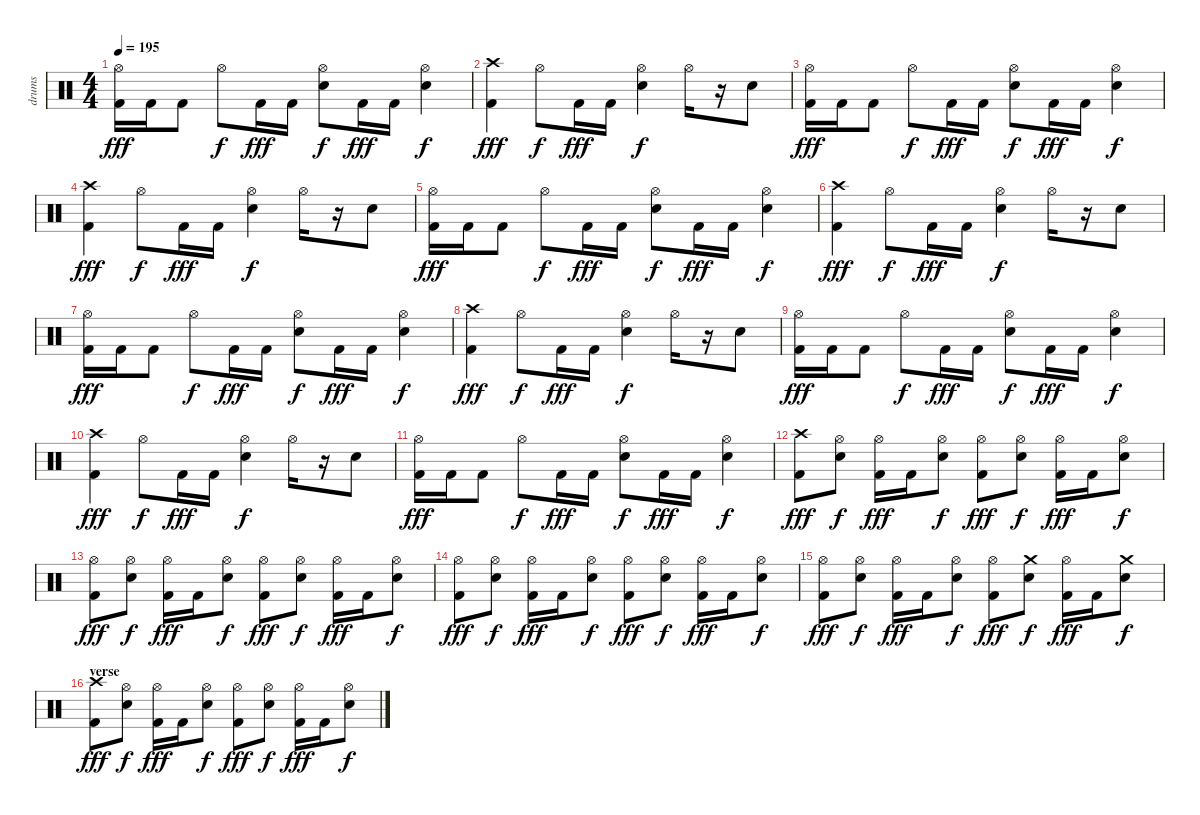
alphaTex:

\track ("drums" "drums") {instrument percussion}
\staff {score}
\articulation defaults
\ts (4 4)
\tempo 195
\clef neutral
\ks c
("Hi-Hat (open)" "Kick (hit) 2").16{dy fff} "Kick (hit) 2".16 "Kick (hit) 2".8 "Hi-Hat (open)".8{dy f} "Kick (hit) 2".16{dy fff} "Kick (hit) 2".16 ("Hi-Hat (open)" "Snare (hit) 2").8{dy f} "Kick (hit) 2".16{dy fff} "Kick (hit) 2".16 ("Hi-Hat (open)" "Snare (hit) 2").4{dy f} |
("Crash high (hit)" "Kick (hit) 2").4{dy fff} "Hi-Hat (open)".8{dy f} "Kick (hit) 2".16{dy fff} "Kick (hit) 2".16 ("Hi-Hat (open)" "Snare (hit) 2").4{dy f} "Hi-Hat (open)".16 r.16 "Snare (hit) 2".8 |
("Hi-Hat (open)" "Kick (hit) 2").16{dy fff} "Kick (hit) 2".16 "Kick (hit) 2".8 "Hi-Hat (open)".8{dy f} "Kick (hit) 2".16{dy fff} "Kick (hit) 2".16 ("Hi-Hat (open)" "Snare (hit) 2").8{dy f} "Kick (hit) 2".16{dy fff} "Kick (hit) 2".16 ("Hi-Hat (open)" "Snare (hit) 2").4{dy f} |
("Crash high (hit)" "Kick (hit) 2").4{dy fff} "Hi-Hat (open)".8{dy f} "Kick (hit) 2".16{dy fff} "Kick (hit) 2".16 ("Hi-Hat (open)" "Snare (hit) 2").4{dy f} "Hi-Hat (open)".16 r.16 "Snare (hit) 2".8 |
("Hi-Hat (open)" "Kick (hit) 2").16{dy fff} "Kick (hit) 2".16 "Kick (hit) 2".8 "Hi-Hat (open)".8{dy f} "Kick (hit) 2".16{dy fff} "Kick (hit) 2".16 ("Hi-Hat (open)" "Snare (hit) 2").8{dy f} "Kick (hit) 2".16{dy fff} "Kick (hit) 2".16 ("Hi-Hat (open)" "Snare (hit) 2").4{dy f} |
("Crash high (hit)" "Kick (hit) 2").4{dy fff} "Hi-Hat (open)".8{dy f} "Kick (hit) 2".16{dy fff} "Kick (hit) 2".16 ("Hi-Hat (open)" "Snare (hit) 2").4{dy f} "Hi-Hat (open)".16 r.16 "Snare (hit) 2".8 |
("Hi-Hat (open)" "Kick (hit) 2").16{dy fff} "Kick (hit) 2".16 "Kick (hit) 2".8 "Hi-Hat (open)".8{dy f} "Kick (hit) 2".16{dy fff} "Kick (hit) 2".16 ("Hi-Hat (open)" "Snare (hit) 2").8{dy f} "Kick (hit) 2".16{dy fff} "Kick (hit) 2".16 ("Hi-Hat (open)" "Snare (hit) 2").4{dy f} |
("Crash high (hit)" "Kick (hit) 2").4{dy fff} "Hi-Hat (open)".8{dy f} "Kick (hit) 2".16{dy fff} "Kick (hit) 2".16 ("Hi-Hat (open)" "Snare (hit) 2").4{dy f} "Hi-Hat (open)".16 r.16 "Snare (hit) 2".8 |
("Hi-Hat (open)" "Kick (hit) 2").16{dy fff} "Kick (hit) 2".16 "Kick (hit) 2".8 "Hi-Hat (open)".8{dy f} "Kick (hit) 2".16{dy fff} "Kick (hit) 2".16 ("Hi-Hat (open)" "Snare (hit) 2").8{dy f} "Kick (hit) 2".16{dy fff} "Kick (hit) 2".16 ("Hi-Hat (open)" "Snare (hit) 2").4{dy f} |
("Crash high (hit)" "Kick (hit) 2").4{dy fff} "Hi-Hat (open)".8{dy f} "Kick (hit) 2".16{dy fff} "Kick (hit) 2".16 ("Hi-Hat (open)" "Snare (hit) 2").4{dy f} "Hi-Hat (open)".16 r.16 "Snare (hit) 2".8 |
("Hi-Hat (open)" "Kick (hit) 2").16{dy fff} "Kick (hit) 2".16 "Kick (hit) 2".8 "Hi-Hat (open)".8{dy f} "Kick (hit) 2".16{dy fff} "Kick (hit) 2".16 ("Hi-Hat (open)" "Snare (hit) 2").8{dy f} "Kick (hit) 2".16{dy fff} "Kick (hit) 2".16 ("Hi-Hat (open)" "Snare (hit) 2").4{dy f} |
\section ("" "")
("Crash high (hit)" "Kick (hit) 2").8{dy fff} ("Hi-Hat (open)" "Snare (hit) 2").8{dy f} ("Hi-Hat (open)" "Kick (hit) 2").16{dy fff} "Kick (hit) 2".16 ("Hi-Hat (open)" "Snare (hit) 2").8{dy f} ("Hi-Hat (open)" "Kick (hit) 2").8{dy fff} ("Hi-Hat (open)" "Snare (hit) 2").8{dy f} ("Hi-Hat (open)" "Kick (hit) 2").16{dy fff} "Kick (hit) 2".16 ("Hi-Hat (open)" "Snare (hit) 2").8{dy f} |
("Hi-Hat (open)" "Kick (hit) 2").8{dy fff} ("Hi-Hat (open)" "Snare (hit) 2").8{dy f} ("Hi-Hat (open)" "Kick (hit) 2").16{dy fff} "Kick (hit) 2".16 ("Hi-Hat (open)" "Snare (hit) 2").8{dy f} ("Hi-Hat (open)" "Kick (hit) 2").8{dy fff} ("Hi-Hat (open)" "Snare (hit) 2").8{dy f} ("Hi-Hat (open)" "Kick (hit) 2").16{dy fff} "Kick (hit) 2".16 ("Hi-Hat (open)" "Snare (hit) 2").8{dy f} |
("Hi-Hat (open)" "Kick (hit) 2").8{dy fff} ("Hi-Hat (open)" "Snare (hit) 2").8{dy f} ("Hi-Hat (open)" "Kick (hit) 2").16{dy fff} "Kick (hit) 2".16 ("Hi-Hat (open)" "Snare (hit) 2").8{dy f} ("Hi-Hat (open)" "Kick (hit) 2").8{dy fff} ("Hi-Hat (open)" "Snare (hit) 2").8{dy f} ("Hi-Hat (open)" "Kick (hit) 2").16{dy fff} "Kick (hit) 2".16 ("Hi-Hat (open)" "Snare (hit) 2").8{dy f} |
("Hi-Hat (open)" "Kick (hit) 2").8{dy fff} ("Hi-Hat (open)" "Snare (hit) 2").8{dy f} ("Hi-Hat (open)" "Kick (hit) 2").16{dy fff} "Kick (hit) 2".16 ("Hi-Hat (open)" "Snare (hit) 2").8{dy f} ("Hi-Hat (open)" "Kick (hit) 2").8{dy fff} ("Crash medium (hit)" "Snare (hit) 2").8{dy f} ("Hi-Hat (open)" "Kick (hit) 2").16{dy fff} "Kick (hit) 2".16 ("Crash medium (hit)" "Snare (hit) 2").8{dy f} |
\section ("" "verse")
("Crash high (hit)" "Kick (hit) 2").8{dy fff} ("Hi-Hat (open)" "Snare (hit) 2").8{dy f} ("Hi-Hat (open)" "Kick (hit) 2").16{dy fff} "Kick (hit) 2".16 ("Hi-Hat (open)" "Snare (hit) 2").8{dy f} ("Hi-Hat (open)" "Kick (hit) 2").8{dy fff} ("Hi-Hat (open)" "Snare (hit) 2").8{dy f} ("Hi-Hat (open)" "Kick (hit) 2").16{dy fff} "Kick (hit) 2".16 ("Hi-Hat (open)" "Snare (hit) 2").8{dy f}
